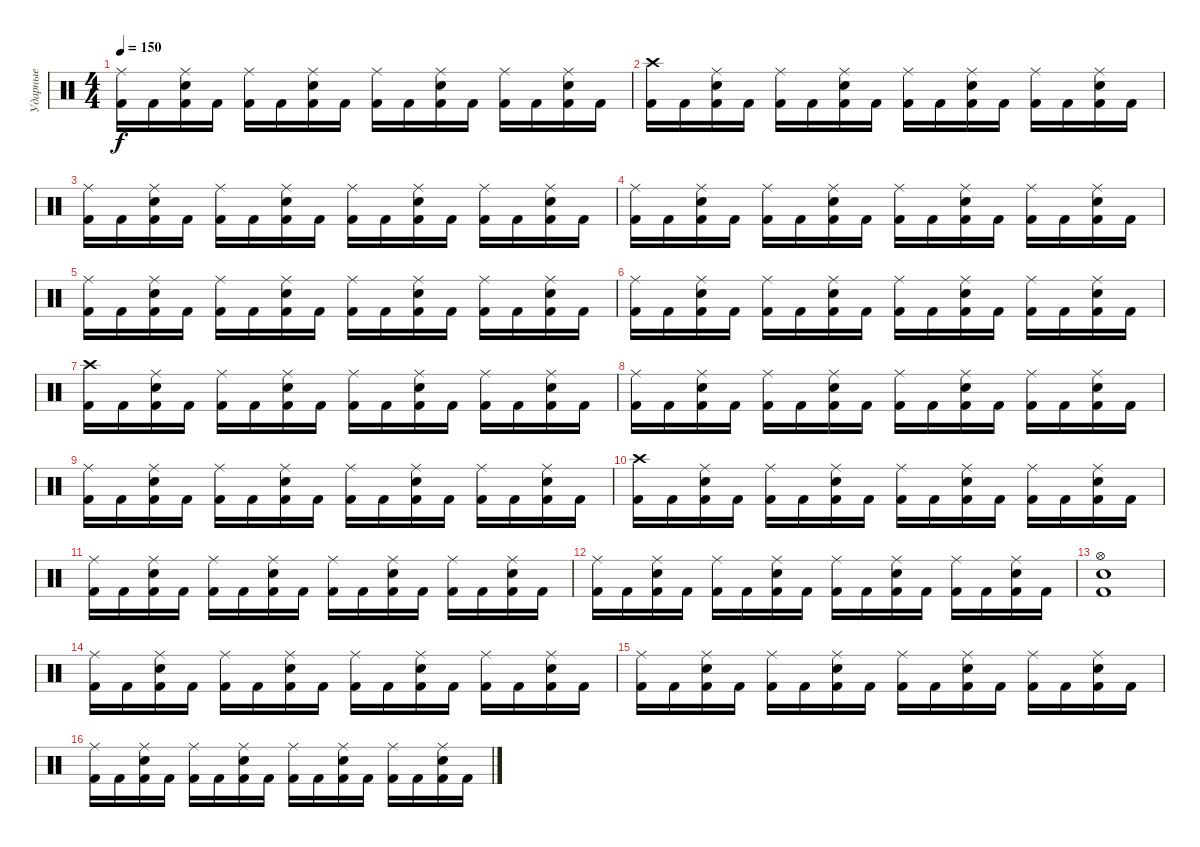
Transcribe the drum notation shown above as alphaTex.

\track ("Ударные" "Ударные") {instrument percussion}
\staff {score}
\articulation defaults
\ts (4 4)
\tempo 150
\clef neutral
\ks c
("Ride (middle)" "Kick (hit) 2").16{dy f} "Kick (hit) 2".16 ("Ride (middle)" "Electric Snare (hit)" "Kick (hit) 2").16 "Kick (hit) 2".16 ("Ride (middle)" "Kick (hit) 2").16 "Kick (hit) 2".16 ("Ride (middle)" "Electric Snare (hit)" "Kick (hit) 2").16 "Kick (hit) 2".16 ("Ride (middle)" "Kick (hit) 2").16 "Kick (hit) 2".16 ("Ride (middle)" "Electric Snare (hit)" "Kick (hit) 2").16 "Kick (hit) 2".16 ("Ride (middle)" "Kick (hit) 2").16 "Kick (hit) 2".16 ("Ride (middle)" "Electric Snare (hit)" "Kick (hit) 2").16 "Kick (hit) 2".16 |
("Crash high (hit)" "Kick (hit) 2").16 "Kick (hit) 2".16 ("Ride (middle)" "Electric Snare (hit)" "Kick (hit) 2").16 "Kick (hit) 2".16 ("Ride (middle)" "Kick (hit) 2").16 "Kick (hit) 2".16 ("Ride (middle)" "Electric Snare (hit)" "Kick (hit) 2").16 "Kick (hit) 2".16 ("Ride (middle)" "Kick (hit) 2").16 "Kick (hit) 2".16 ("Ride (middle)" "Electric Snare (hit)" "Kick (hit) 2").16 "Kick (hit) 2".16 ("Ride (middle)" "Kick (hit) 2").16 "Kick (hit) 2".16 ("Ride (middle)" "Electric Snare (hit)" "Kick (hit) 2").16 "Kick (hit) 2".16 |
("Ride (middle)" "Kick (hit) 2").16 "Kick (hit) 2".16 ("Ride (middle)" "Electric Snare (hit)" "Kick (hit) 2").16 "Kick (hit) 2".16 ("Ride (middle)" "Kick (hit) 2").16 "Kick (hit) 2".16 ("Ride (middle)" "Electric Snare (hit)" "Kick (hit) 2").16 "Kick (hit) 2".16 ("Ride (middle)" "Kick (hit) 2").16 "Kick (hit) 2".16 ("Ride (middle)" "Electric Snare (hit)" "Kick (hit) 2").16 "Kick (hit) 2".16 ("Ride (middle)" "Kick (hit) 2").16 "Kick (hit) 2".16 ("Ride (middle)" "Electric Snare (hit)" "Kick (hit) 2").16 "Kick (hit) 2".16 |
("Ride (middle)" "Kick (hit) 2").16 "Kick (hit) 2".16 ("Ride (middle)" "Electric Snare (hit)" "Kick (hit) 2").16 "Kick (hit) 2".16 ("Ride (middle)" "Kick (hit) 2").16 "Kick (hit) 2".16 ("Ride (middle)" "Electric Snare (hit)" "Kick (hit) 2").16 "Kick (hit) 2".16 ("Ride (middle)" "Kick (hit) 2").16 "Kick (hit) 2".16 ("Ride (middle)" "Electric Snare (hit)" "Kick (hit) 2").16 "Kick (hit) 2".16 ("Ride (middle)" "Kick (hit) 2").16 "Kick (hit) 2".16 ("Ride (middle)" "Electric Snare (hit)" "Kick (hit) 2").16 "Kick (hit) 2".16 |
("Ride (middle)" "Kick (hit) 2").16 "Kick (hit) 2".16 ("Ride (middle)" "Electric Snare (hit)" "Kick (hit) 2").16 "Kick (hit) 2".16 ("Ride (middle)" "Kick (hit) 2").16 "Kick (hit) 2".16 ("Ride (middle)" "Electric Snare (hit)" "Kick (hit) 2").16 "Kick (hit) 2".16 ("Ride (middle)" "Kick (hit) 2").16 "Kick (hit) 2".16 ("Ride (middle)" "Electric Snare (hit)" "Kick (hit) 2").16 "Kick (hit) 2".16 ("Ride (middle)" "Kick (hit) 2").16 "Kick (hit) 2".16 ("Ride (middle)" "Electric Snare (hit)" "Kick (hit) 2").16 "Kick (hit) 2".16 |
("Ride (middle)" "Kick (hit) 2").16 "Kick (hit) 2".16 ("Ride (middle)" "Electric Snare (hit)" "Kick (hit) 2").16 "Kick (hit) 2".16 ("Ride (middle)" "Kick (hit) 2").16 "Kick (hit) 2".16 ("Ride (middle)" "Electric Snare (hit)" "Kick (hit) 2").16 "Kick (hit) 2".16 ("Ride (middle)" "Kick (hit) 2").16 "Kick (hit) 2".16 ("Ride (middle)" "Electric Snare (hit)" "Kick (hit) 2").16 "Kick (hit) 2".16 ("Ride (middle)" "Kick (hit) 2").16 "Kick (hit) 2".16 ("Ride (middle)" "Electric Snare (hit)" "Kick (hit) 2").16 "Kick (hit) 2".16 |
("Crash high (hit)" "Kick (hit) 2").16 "Kick (hit) 2".16 ("Ride (middle)" "Electric Snare (hit)" "Kick (hit) 2").16 "Kick (hit) 2".16 ("Ride (middle)" "Kick (hit) 2").16 "Kick (hit) 2".16 ("Ride (middle)" "Electric Snare (hit)" "Kick (hit) 2").16 "Kick (hit) 2".16 ("Ride (middle)" "Kick (hit) 2").16 "Kick (hit) 2".16 ("Ride (middle)" "Electric Snare (hit)" "Kick (hit) 2").16 "Kick (hit) 2".16 ("Ride (middle)" "Kick (hit) 2").16 "Kick (hit) 2".16 ("Ride (middle)" "Electric Snare (hit)" "Kick (hit) 2").16 "Kick (hit) 2".16 |
("Ride (middle)" "Kick (hit) 2").16 "Kick (hit) 2".16 ("Ride (middle)" "Electric Snare (hit)" "Kick (hit) 2").16 "Kick (hit) 2".16 ("Ride (middle)" "Kick (hit) 2").16 "Kick (hit) 2".16 ("Ride (middle)" "Electric Snare (hit)" "Kick (hit) 2").16 "Kick (hit) 2".16 ("Ride (middle)" "Kick (hit) 2").16 "Kick (hit) 2".16 ("Ride (middle)" "Electric Snare (hit)" "Kick (hit) 2").16 "Kick (hit) 2".16 ("Ride (middle)" "Kick (hit) 2").16 "Kick (hit) 2".16 ("Ride (middle)" "Electric Snare (hit)" "Kick (hit) 2").16 "Kick (hit) 2".16 |
("Ride (middle)" "Kick (hit) 2").16 "Kick (hit) 2".16 ("Ride (middle)" "Electric Snare (hit)" "Kick (hit) 2").16 "Kick (hit) 2".16 ("Ride (middle)" "Kick (hit) 2").16 "Kick (hit) 2".16 ("Ride (middle)" "Electric Snare (hit)" "Kick (hit) 2").16 "Kick (hit) 2".16 ("Ride (middle)" "Kick (hit) 2").16 "Kick (hit) 2".16 ("Ride (middle)" "Electric Snare (hit)" "Kick (hit) 2").16 "Kick (hit) 2".16 ("Ride (middle)" "Kick (hit) 2").16 "Kick (hit) 2".16 ("Ride (middle)" "Electric Snare (hit)" "Kick (hit) 2").16 "Kick (hit) 2".16 |
("Crash high (hit)" "Kick (hit) 2").16 "Kick (hit) 2".16 ("Ride (middle)" "Electric Snare (hit)" "Kick (hit) 2").16 "Kick (hit) 2".16 ("Ride (middle)" "Kick (hit) 2").16 "Kick (hit) 2".16 ("Ride (middle)" "Electric Snare (hit)" "Kick (hit) 2").16 "Kick (hit) 2".16 ("Ride (middle)" "Kick (hit) 2").16 "Kick (hit) 2".16 ("Ride (middle)" "Electric Snare (hit)" "Kick (hit) 2").16 "Kick (hit) 2".16 ("Ride (middle)" "Kick (hit) 2").16 "Kick (hit) 2".16 ("Ride (middle)" "Electric Snare (hit)" "Kick (hit) 2").16 "Kick (hit) 2".16 |
("Ride (middle)" "Kick (hit) 2").16 "Kick (hit) 2".16 ("Ride (middle)" "Electric Snare (hit)" "Kick (hit) 2").16 "Kick (hit) 2".16 ("Ride (middle)" "Kick (hit) 2").16 "Kick (hit) 2".16 ("Ride (middle)" "Electric Snare (hit)" "Kick (hit) 2").16 "Kick (hit) 2".16 ("Ride (middle)" "Kick (hit) 2").16 "Kick (hit) 2".16 ("Ride (middle)" "Electric Snare (hit)" "Kick (hit) 2").16 "Kick (hit) 2".16 ("Ride (middle)" "Kick (hit) 2").16 "Kick (hit) 2".16 ("Ride (middle)" "Electric Snare (hit)" "Kick (hit) 2").16 "Kick (hit) 2".16 |
("Ride (middle)" "Kick (hit) 2").16 "Kick (hit) 2".16 ("Ride (middle)" "Electric Snare (hit)" "Kick (hit) 2").16 "Kick (hit) 2".16 ("Ride (middle)" "Kick (hit) 2").16 "Kick (hit) 2".16 ("Ride (middle)" "Electric Snare (hit)" "Kick (hit) 2").16 "Kick (hit) 2".16 ("Ride (middle)" "Kick (hit) 2").16 "Kick (hit) 2".16 ("Ride (middle)" "Electric Snare (hit)" "Kick (hit) 2").16 "Kick (hit) 2".16 ("Ride (middle)" "Kick (hit) 2").16 "Kick (hit) 2".16 ("Ride (middle)" "Electric Snare (hit)" "Kick (hit) 2").16 "Kick (hit) 2".16 |
("Hi-Hat (open)" "Electric Snare (hit)" "Kick (hit) 2").1 |
("Ride (middle)" "Kick (hit) 2").16 "Kick (hit) 2".16 ("Ride (middle)" "Electric Snare (hit)" "Kick (hit) 2").16 "Kick (hit) 2".16 ("Ride (middle)" "Kick (hit) 2").16 "Kick (hit) 2".16 ("Ride (middle)" "Electric Snare (hit)" "Kick (hit) 2").16 "Kick (hit) 2".16 ("Ride (middle)" "Kick (hit) 2").16 "Kick (hit) 2".16 ("Ride (middle)" "Electric Snare (hit)" "Kick (hit) 2").16 "Kick (hit) 2".16 ("Ride (middle)" "Kick (hit) 2").16 "Kick (hit) 2".16 ("Ride (middle)" "Electric Snare (hit)" "Kick (hit) 2").16 "Kick (hit) 2".16 |
("Ride (middle)" "Kick (hit) 2").16 "Kick (hit) 2".16 ("Ride (middle)" "Electric Snare (hit)" "Kick (hit) 2").16 "Kick (hit) 2".16 ("Ride (middle)" "Kick (hit) 2").16 "Kick (hit) 2".16 ("Ride (middle)" "Electric Snare (hit)" "Kick (hit) 2").16 "Kick (hit) 2".16 ("Ride (middle)" "Kick (hit) 2").16 "Kick (hit) 2".16 ("Ride (middle)" "Electric Snare (hit)" "Kick (hit) 2").16 "Kick (hit) 2".16 ("Ride (middle)" "Kick (hit) 2").16 "Kick (hit) 2".16 ("Ride (middle)" "Electric Snare (hit)" "Kick (hit) 2").16 "Kick (hit) 2".16 |
("Ride (middle)" "Kick (hit) 2").16 "Kick (hit) 2".16 ("Ride (middle)" "Electric Snare (hit)" "Kick (hit) 2").16 "Kick (hit) 2".16 ("Ride (middle)" "Kick (hit) 2").16 "Kick (hit) 2".16 ("Ride (middle)" "Electric Snare (hit)" "Kick (hit) 2").16 "Kick (hit) 2".16 ("Ride (middle)" "Kick (hit) 2").16 "Kick (hit) 2".16 ("Ride (middle)" "Electric Snare (hit)" "Kick (hit) 2").16 "Kick (hit) 2".16 ("Ride (middle)" "Kick (hit) 2").16 "Kick (hit) 2".16 ("Ride (middle)" "Electric Snare (hit)" "Kick (hit) 2").16 "Kick (hit) 2".16
